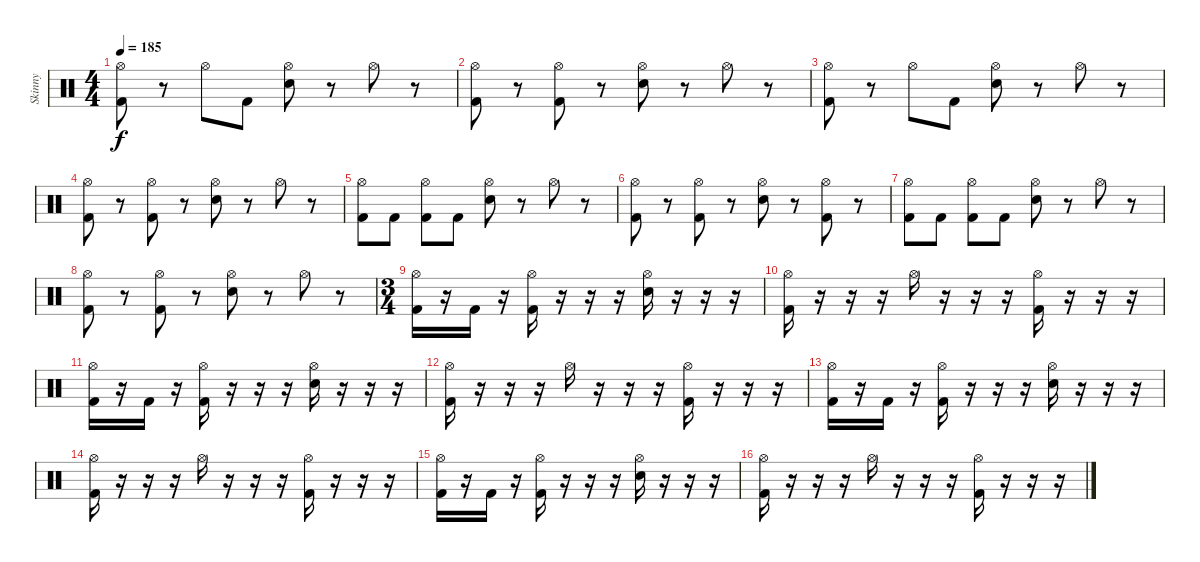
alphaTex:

\track ("Skinny" "Skinny") {instrument percussion}
\staff {score}
\articulation defaults
\ts (4 4)
\tempo 185
\clef neutral
\ks c
("Hi-Hat (open)" "Kick (hit) 2").8{dy f} r.8 "Hi-Hat (open)".8 "Kick (hit) 2".8 ("Hi-Hat (open)" "Snare (hit) 2").8 r.8 "Hi-Hat (open)".8 r.8 |
("Hi-Hat (open)" "Kick (hit) 2").8 r.8 ("Hi-Hat (open)" "Kick (hit) 2").8 r.8 ("Hi-Hat (open)" "Snare (hit) 2").8 r.8 "Hi-Hat (open)".8 r.8 |
("Hi-Hat (open)" "Kick (hit) 2").8 r.8 "Hi-Hat (open)".8 "Kick (hit) 2".8 ("Hi-Hat (open)" "Snare (hit) 2").8 r.8 "Hi-Hat (open)".8 r.8 |
("Hi-Hat (open)" "Kick (hit) 2").8 r.8 ("Hi-Hat (open)" "Kick (hit) 2").8 r.8 ("Hi-Hat (open)" "Snare (hit) 2").8 r.8 "Hi-Hat (open)".8 r.8 |
("Hi-Hat (open)" "Kick (hit) 2").8 "Kick (hit) 2".8 ("Hi-Hat (open)" "Kick (hit) 2").8 "Kick (hit) 2".8 ("Hi-Hat (open)" "Snare (hit) 2").8 r.8 "Hi-Hat (open)".8 r.8 |
("Hi-Hat (open)" "Kick (hit) 2").8 r.8 ("Hi-Hat (open)" "Kick (hit) 2").8 r.8 ("Hi-Hat (open)" "Snare (hit) 2").8 r.8 ("Hi-Hat (open)" "Kick (hit) 2").8 r.8 |
("Hi-Hat (open)" "Kick (hit) 2").8 "Kick (hit) 2".8 ("Hi-Hat (open)" "Kick (hit) 2").8 "Kick (hit) 2".8 ("Hi-Hat (open)" "Snare (hit) 2").8 r.8 "Hi-Hat (open)".8 r.8 |
("Hi-Hat (open)" "Kick (hit) 2").8 r.8 ("Hi-Hat (open)" "Kick (hit) 2").8 r.8 ("Hi-Hat (open)" "Snare (hit) 2").8 r.8 "Hi-Hat (open)".8 r.8 |
\ts (3 4)
("Hi-Hat (open)" "Kick (hit) 2").16 r.16 "Kick (hit) 2".16 r.16 ("Hi-Hat (open)" "Kick (hit) 2").16 r.16 r.16 r.16 ("Hi-Hat (open)" "Snare (hit) 2").16 r.16 r.16 r.16 |
("Hi-Hat (open)" "Kick (hit) 2").16 r.16 r.16 r.16 "Hi-Hat (open)".16 r.16 r.16 r.16 ("Hi-Hat (open)" "Kick (hit) 2").16 r.16 r.16 r.16 |
("Hi-Hat (open)" "Kick (hit) 2").16 r.16 "Kick (hit) 2".16 r.16 ("Hi-Hat (open)" "Kick (hit) 2").16 r.16 r.16 r.16 ("Hi-Hat (open)" "Snare (hit) 2").16 r.16 r.16 r.16 |
("Hi-Hat (open)" "Kick (hit) 2").16 r.16 r.16 r.16 "Hi-Hat (open)".16 r.16 r.16 r.16 ("Hi-Hat (open)" "Kick (hit) 2").16 r.16 r.16 r.16 |
("Hi-Hat (open)" "Kick (hit) 2").16 r.16 "Kick (hit) 2".16 r.16 ("Hi-Hat (open)" "Kick (hit) 2").16 r.16 r.16 r.16 ("Hi-Hat (open)" "Snare (hit) 2").16 r.16 r.16 r.16 |
("Hi-Hat (open)" "Kick (hit) 2").16 r.16 r.16 r.16 "Hi-Hat (open)".16 r.16 r.16 r.16 ("Hi-Hat (open)" "Kick (hit) 2").16 r.16 r.16 r.16 |
("Hi-Hat (open)" "Kick (hit) 2").16 r.16 "Kick (hit) 2".16 r.16 ("Hi-Hat (open)" "Kick (hit) 2").16 r.16 r.16 r.16 ("Hi-Hat (open)" "Snare (hit) 2").16 r.16 r.16 r.16 |
("Hi-Hat (open)" "Kick (hit) 2").16 r.16 r.16 r.16 "Hi-Hat (open)".16 r.16 r.16 r.16 ("Hi-Hat (open)" "Kick (hit) 2").16 r.16 r.16 r.16
